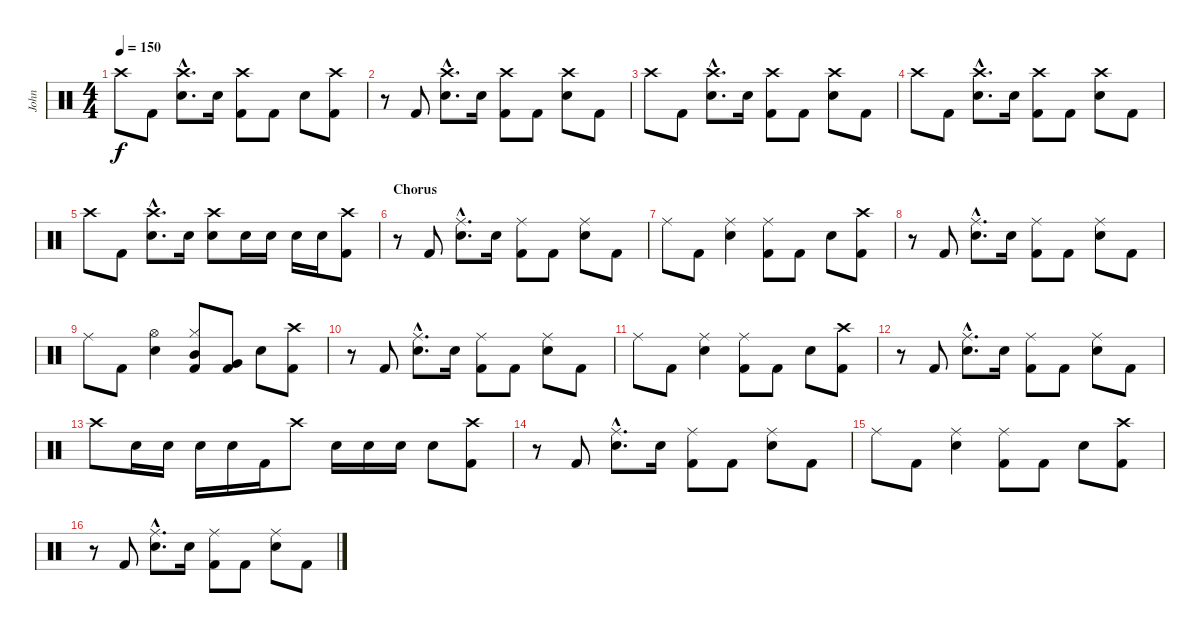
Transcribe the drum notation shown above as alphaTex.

\track ("John" "John") {instrument percussion}
\staff {score}
\articulation defaults
\ts (4 4)
\tempo 150
\clef neutral
\ks c "Crash high (hit)".8{dy f} "Kick (hit) 2".8
("Crash high (hit)"{hac} "Electric Snare (hit)"{hac}).8{d} "Electric Snare (hit)".16 ("Crash high (hit)" "Kick (hit) 2").8 "Kick (hit) 2".8 "Electric Snare (hit)".8 ("Crash high (hit)" "Kick (hit) 2").8 |
r.8 "Kick (hit) 2".8 ("Crash high (hit)"{hac} "Electric Snare (hit)"{hac}).8{d} "Electric Snare (hit)".16 ("Crash high (hit)" "Kick (hit) 2").8 "Kick (hit) 2".8 ("Crash high (hit)" "Electric Snare (hit)").8 "Kick (hit) 2".8 |
"Crash high (hit)".8 "Kick (hit) 2".8 ("Crash high (hit)"{hac} "Electric Snare (hit)"{hac}).8{d} "Electric Snare (hit)".16 ("Crash high (hit)" "Kick (hit) 2").8 "Kick (hit) 2".8 ("Crash high (hit)" "Electric Snare (hit)").8 "Kick (hit) 2".8 |
"Crash high (hit)".8 "Kick (hit) 2".8 ("Crash high (hit)"{hac} "Electric Snare (hit)"{hac}).8{d} "Electric Snare (hit)".16 ("Crash high (hit)" "Kick (hit) 2").8 "Kick (hit) 2".8 ("Crash high (hit)" "Electric Snare (hit)").8 "Kick (hit) 2".8 |
"Crash high (hit)".8 "Kick (hit) 2".8 ("Crash high (hit)"{hac} "Electric Snare (hit)"{hac}).8{d} "Electric Snare (hit)".16 ("Crash high (hit)" "Electric Snare (hit)").8 "Electric Snare (hit)".16 "Electric Snare (hit)".16 "Electric Snare (hit)".16 "Electric Snare (hit)".16 ("Crash high (hit)" "Kick (hit) 2").8 |
\section ("" "Chorus")
r.8 "Kick (hit) 2".8 ("Ride (middle)"{hac} "Electric Snare (hit)"{hac}).8{d} "Electric Snare (hit)".16 ("Ride (middle)" "Kick (hit) 2").8 "Kick (hit) 2".8 ("Ride (middle)" "Electric Snare (hit)").8 "Kick (hit) 2".8 |
"Ride (middle)".8 "Kick (hit) 2".8 ("Ride (middle)" "Electric Snare (hit)").4 ("Ride (middle)" "Kick (hit) 2").8 "Kick (hit) 2".8 "Electric Snare (hit)".8 ("Crash high (hit)" "Kick (hit) 2").8 |
r.8 "Kick (hit) 2".8 ("Ride (middle)"{hac} "Electric Snare (hit)"{hac}).8{d} "Electric Snare (hit)".16 ("Ride (middle)" "Kick (hit) 2").8 "Kick (hit) 2".8 ("Ride (middle)" "Electric Snare (hit)").8 "Kick (hit) 2".8 |
"Ride (middle)".8 "Kick (hit) 2".8 ("Hi-Hat (open)" "Electric Snare (hit)").4 ("Hi-Hat (closed)" "Mid Tom (hit)" "Kick (hit) 2").8 ("Very Low Tom (hit)" "Kick (hit) 2").8 "Electric Snare (hit)".8 ("Crash high (hit)" "Kick (hit) 2").8 |
r.8 "Kick (hit) 2".8 ("Ride (middle)"{hac} "Electric Snare (hit)"{hac}).8{d} "Electric Snare (hit)".16 ("Ride (middle)" "Kick (hit) 2").8 "Kick (hit) 2".8 ("Ride (middle)" "Electric Snare (hit)").8 "Kick (hit) 2".8 |
"Ride (middle)".8 "Kick (hit) 2".8 ("Ride (middle)" "Electric Snare (hit)").4 ("Ride (middle)" "Kick (hit) 2").8 "Kick (hit) 2".8 "Electric Snare (hit)".8 ("Crash high (hit)" "Kick (hit) 2").8 |
r.8 "Kick (hit) 2".8 ("Ride (middle)"{hac} "Electric Snare (hit)"{hac}).8{d} "Electric Snare (hit)".16 ("Ride (middle)" "Kick (hit) 2").8 "Kick (hit) 2".8 ("Ride (middle)" "Electric Snare (hit)").8 "Kick (hit) 2".8 |
"Crash high (hit)".8 "Electric Snare (hit)".16 "Electric Snare (hit)".16 "Electric Snare (hit)".16 "Electric Snare (hit)".16 "Kick (hit) 2".16 "Crash high (hit)".8 "Electric Snare (hit)".16 "Electric Snare (hit)".16 "Electric Snare (hit)".16 "Electric Snare (hit)".8 ("Crash high (hit)" "Kick (hit) 2").8 |
r.8 "Kick (hit) 2".8 ("Ride (middle)"{hac} "Electric Snare (hit)"{hac}).8{d} "Electric Snare (hit)".16 ("Ride (middle)" "Kick (hit) 2").8 "Kick (hit) 2".8 ("Ride (middle)" "Electric Snare (hit)").8 "Kick (hit) 2".8 |
"Ride (middle)".8 "Kick (hit) 2".8 ("Ride (middle)" "Electric Snare (hit)").4 ("Ride (middle)" "Kick (hit) 2").8 "Kick (hit) 2".8 "Electric Snare (hit)".8 ("Crash high (hit)" "Kick (hit) 2").8 |
r.8 "Kick (hit) 2".8 ("Ride (middle)"{hac} "Electric Snare (hit)"{hac}).8{d} "Electric Snare (hit)".16 ("Ride (middle)" "Kick (hit) 2").8 "Kick (hit) 2".8 ("Ride (middle)" "Electric Snare (hit)").8 "Kick (hit) 2".8
